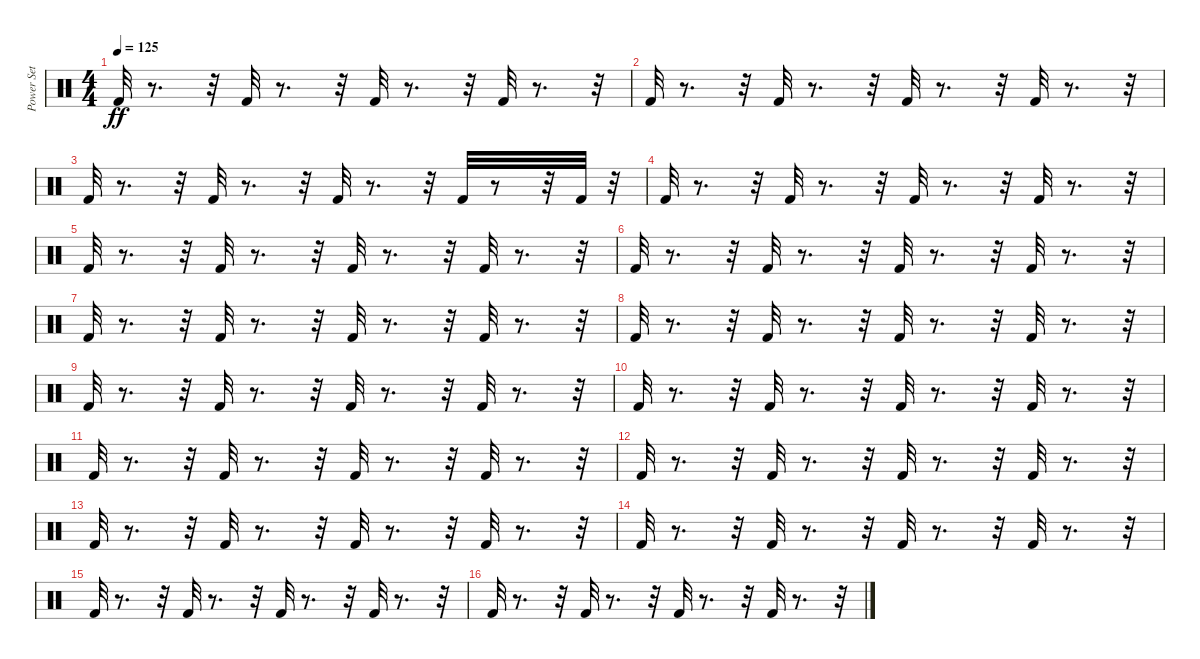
\track ("Power Set" "Power Set") {instrument percussion}
\staff {score}
\articulation defaults
\ts (4 4)
\tempo 125
\clef neutral
\ks c "Kick (hit) 2".32{dy ff}
r.8{d} r.32 "Kick (hit) 2".32 r.8{d} r.32 "Kick (hit) 2".32 r.8{d} r.32 "Kick (hit) 2".32 r.8{d} r.32 |
"Kick (hit) 2".32 r.8{d} r.32 "Kick (hit) 2".32 r.8{d} r.32 "Kick (hit) 2".32 r.8{d} r.32 "Kick (hit) 2".32 r.8{d} r.32 |
"Kick (hit) 2".32 r.8{d} r.32 "Kick (hit) 2".32 r.8{d} r.32 "Kick (hit) 2".32 r.8{d} r.32 "Kick (hit) 2".32 r.8 r.32 "Kick (hit) 2".32 r.32 |
"Kick (hit) 2".32 r.8{d} r.32 "Kick (hit) 2".32 r.8{d} r.32 "Kick (hit) 2".32 r.8{d} r.32 "Kick (hit) 2".32 r.8{d} r.32 |
"Kick (hit) 2".32 r.8{d} r.32 "Kick (hit) 2".32 r.8{d} r.32 "Kick (hit) 2".32 r.8{d} r.32 "Kick (hit) 2".32 r.8{d} r.32 |
"Kick (hit) 2".32 r.8{d} r.32 "Kick (hit) 2".32 r.8{d} r.32 "Kick (hit) 2".32 r.8{d} r.32 "Kick (hit) 2".32 r.8{d} r.32 |
"Kick (hit) 2".32 r.8{d} r.32 "Kick (hit) 2".32 r.8{d} r.32 "Kick (hit) 2".32 r.8{d} r.32 "Kick (hit) 2".32 r.8{d} r.32 |
"Kick (hit) 2".32 r.8{d} r.32 "Kick (hit) 2".32 r.8{d} r.32 "Kick (hit) 2".32 r.8{d} r.32 "Kick (hit) 2".32 r.8{d} r.32 |
"Kick (hit) 2".32 r.8{d} r.32 "Kick (hit) 2".32 r.8{d} r.32 "Kick (hit) 2".32 r.8{d} r.32 "Kick (hit) 2".32 r.8{d} r.32 |
"Kick (hit) 2".32 r.8{d} r.32 "Kick (hit) 2".32 r.8{d} r.32 "Kick (hit) 2".32 r.8{d} r.32 "Kick (hit) 2".32 r.8{d} r.32 |
"Kick (hit) 2".32 r.8{d} r.32 "Kick (hit) 2".32 r.8{d} r.32 "Kick (hit) 2".32 r.8{d} r.32 "Kick (hit) 2".32 r.8{d} r.32 |
"Kick (hit) 2".32 r.8{d} r.32 "Kick (hit) 2".32 r.8{d} r.32 "Kick (hit) 2".32 r.8{d} r.32 "Kick (hit) 2".32 r.8{d} r.32 |
"Kick (hit) 2".32 r.8{d} r.32 "Kick (hit) 2".32 r.8{d} r.32 "Kick (hit) 2".32 r.8{d} r.32 "Kick (hit) 2".32 r.8{d} r.32 |
"Kick (hit) 2".32 r.8{d} r.32 "Kick (hit) 2".32 r.8{d} r.32 "Kick (hit) 2".32 r.8{d} r.32 "Kick (hit) 2".32 r.8{d} r.32 |
"Kick (hit) 2".32 r.8{d} r.32 "Kick (hit) 2".32 r.8{d} r.32 "Kick (hit) 2".32 r.8{d} r.32 "Kick (hit) 2".32 r.8{d} r.32 |
"Kick (hit) 2".32 r.8{d} r.32 "Kick (hit) 2".32 r.8{d} r.32 "Kick (hit) 2".32 r.8{d} r.32 "Kick (hit) 2".32 r.8{d} r.32
